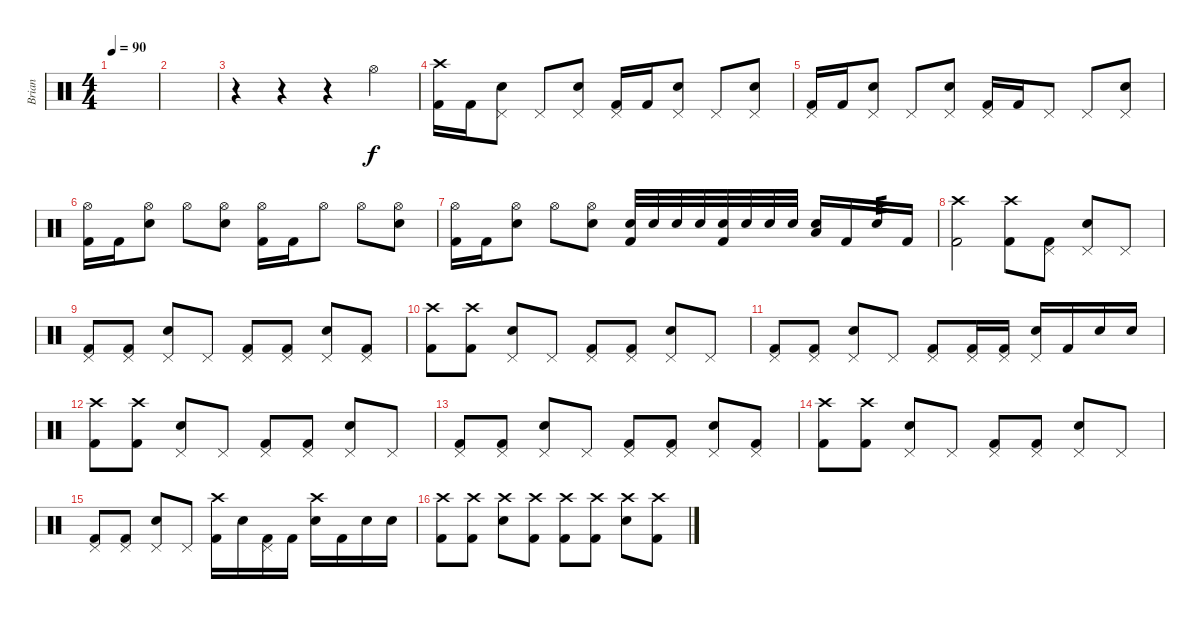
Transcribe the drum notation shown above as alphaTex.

\track ("Brian" "Brian") {instrument percussion}
\staff {score}
\articulation defaults
\ts (4 4)
\tempo 90
\clef neutral
\ks c
|
|
r.4 r.4 r.4 "Hi-Hat (open)".4 |
("Crash high (hit)" "Kick (hit) 2").16 "Kick (hit) 2".16 ("Pedal Hi-Hat (hit)" "Electric Snare (hit)").8 "Pedal Hi-Hat (hit)".8 ("Pedal Hi-Hat (hit)" "Electric Snare (hit)").8 ("Pedal Hi-Hat (hit)" "Kick (hit) 2").16 "Kick (hit) 2".16 ("Pedal Hi-Hat (hit)" "Electric Snare (hit)").8 "Pedal Hi-Hat (hit)".8 ("Pedal Hi-Hat (hit)" "Electric Snare (hit)").8 |
("Pedal Hi-Hat (hit)" "Kick (hit) 2").16 "Kick (hit) 2".16 ("Pedal Hi-Hat (hit)" "Electric Snare (hit)").8 "Pedal Hi-Hat (hit)".8 ("Pedal Hi-Hat (hit)" "Electric Snare (hit)").8 ("Pedal Hi-Hat (hit)" "Kick (hit) 2").16 "Kick (hit) 2".16 "Pedal Hi-Hat (hit)".8 "Pedal Hi-Hat (hit)".8 ("Pedal Hi-Hat (hit)" "Electric Snare (hit)").8 |
("Hi-Hat (open)" "Kick (hit) 2").16 "Kick (hit) 2".16 ("Hi-Hat (open)" "Electric Snare (hit)").8 "Hi-Hat (open)".8 ("Hi-Hat (open)" "Electric Snare (hit)").8 ("Hi-Hat (open)" "Kick (hit) 2").16 "Kick (hit) 2".16 "Hi-Hat (open)".8 "Hi-Hat (open)".8 ("Hi-Hat (open)" "Electric Snare (hit)").8 |
("Hi-Hat (open)" "Kick (hit) 2").16 "Kick (hit) 2".16 ("Hi-Hat (open)" "Electric Snare (hit)").8 "Hi-Hat (open)".8 ("Hi-Hat (open)" "Electric Snare (hit)").8 ("Electric Snare (hit)" "Kick (hit) 2").32 "Electric Snare (hit)".32 "Electric Snare (hit)".32 "Electric Snare (hit)".32 ("Electric Snare (hit)" "Kick (hit) 2").32 "Electric Snare (hit)".32 "Electric Snare (hit)".32 "Electric Snare (hit)".32 ("Low Floor Tom (hit)" "Electric Snare (hit)").16 "Kick (hit) 2".16 "Electric Snare (hit)".16{tp 3} "Kick (hit) 2".16 |
("Crash high (hit)" "Kick (hit) 2").2 ("Crash high (hit)" "Kick (hit) 2").8 ("Pedal Hi-Hat (hit)" "Kick (hit) 2").8 ("Pedal Hi-Hat (hit)" "Electric Snare (hit)").8 "Pedal Hi-Hat (hit)".8 |
("Pedal Hi-Hat (hit)" "Kick (hit) 2").8 ("Pedal Hi-Hat (hit)" "Kick (hit) 2").8 ("Pedal Hi-Hat (hit)" "Electric Snare (hit)").8 "Pedal Hi-Hat (hit)".8 ("Pedal Hi-Hat (hit)" "Kick (hit) 2").8 ("Pedal Hi-Hat (hit)" "Kick (hit) 2").8 ("Pedal Hi-Hat (hit)" "Electric Snare (hit)").8 ("Pedal Hi-Hat (hit)" "Kick (hit) 2").8 |
("Crash high (hit)" "Kick (hit) 2").8 ("Crash high (hit)" "Kick (hit) 2").8 ("Pedal Hi-Hat (hit)" "Electric Snare (hit)").8 "Pedal Hi-Hat (hit)".8 ("Pedal Hi-Hat (hit)" "Kick (hit) 2").8 ("Pedal Hi-Hat (hit)" "Kick (hit) 2").8 ("Pedal Hi-Hat (hit)" "Electric Snare (hit)").8 "Pedal Hi-Hat (hit)".8 |
("Pedal Hi-Hat (hit)" "Kick (hit) 2").8 ("Pedal Hi-Hat (hit)" "Kick (hit) 2").8 ("Pedal Hi-Hat (hit)" "Electric Snare (hit)").8 "Pedal Hi-Hat (hit)".8 ("Pedal Hi-Hat (hit)" "Kick (hit) 2").8 ("Pedal Hi-Hat (hit)" "Kick (hit) 2").16 ("Pedal Hi-Hat (hit)" "Kick (hit) 2").16 ("Pedal Hi-Hat (hit)" "Electric Snare (hit)").16 "Kick (hit) 2".16 "Electric Snare (hit)".16 "Electric Snare (hit)".16 |
("Crash high (hit)" "Kick (hit) 2").8 ("Crash high (hit)" "Kick (hit) 2").8 ("Pedal Hi-Hat (hit)" "Electric Snare (hit)").8 "Pedal Hi-Hat (hit)".8 ("Pedal Hi-Hat (hit)" "Kick (hit) 2").8 ("Pedal Hi-Hat (hit)" "Kick (hit) 2").8 ("Pedal Hi-Hat (hit)" "Electric Snare (hit)").8 "Pedal Hi-Hat (hit)".8 |
("Pedal Hi-Hat (hit)" "Kick (hit) 2").8 ("Pedal Hi-Hat (hit)" "Kick (hit) 2").8 ("Pedal Hi-Hat (hit)" "Electric Snare (hit)").8 "Pedal Hi-Hat (hit)".8 ("Pedal Hi-Hat (hit)" "Kick (hit) 2").8 ("Pedal Hi-Hat (hit)" "Kick (hit) 2").8 ("Pedal Hi-Hat (hit)" "Electric Snare (hit)").8 ("Pedal Hi-Hat (hit)" "Kick (hit) 2").8 |
("Crash high (hit)" "Kick (hit) 2").8 ("Crash high (hit)" "Kick (hit) 2").8 ("Pedal Hi-Hat (hit)" "Electric Snare (hit)").8 "Pedal Hi-Hat (hit)".8 ("Pedal Hi-Hat (hit)" "Kick (hit) 2").8 ("Pedal Hi-Hat (hit)" "Kick (hit) 2").8 ("Pedal Hi-Hat (hit)" "Electric Snare (hit)").8 "Pedal Hi-Hat (hit)".8 |
("Pedal Hi-Hat (hit)" "Kick (hit) 2").8 ("Pedal Hi-Hat (hit)" "Kick (hit) 2").8 ("Pedal Hi-Hat (hit)" "Electric Snare (hit)").8 "Pedal Hi-Hat (hit)".8 ("Crash high (hit)" "Kick (hit) 2").16 "Electric Snare (hit)".16 ("Pedal Hi-Hat (hit)" "Kick (hit) 2").16 "Kick (hit) 2".16 ("Crash high (hit)" "Electric Snare (hit)").16 "Kick (hit) 2".16 "Electric Snare (hit)".16 "Electric Snare (hit)".16 |
("Crash high (hit)" "Kick (hit) 2").8 ("Crash high (hit)" "Kick (hit) 2").8 ("Crash high (hit)" "Electric Snare (hit)").8 ("Crash high (hit)" "Kick (hit) 2").8 ("Crash high (hit)" "Kick (hit) 2").8 ("Crash high (hit)" "Kick (hit) 2").8 ("Crash high (hit)" "Electric Snare (hit)").8 ("Crash high (hit)" "Kick (hit) 2").8
